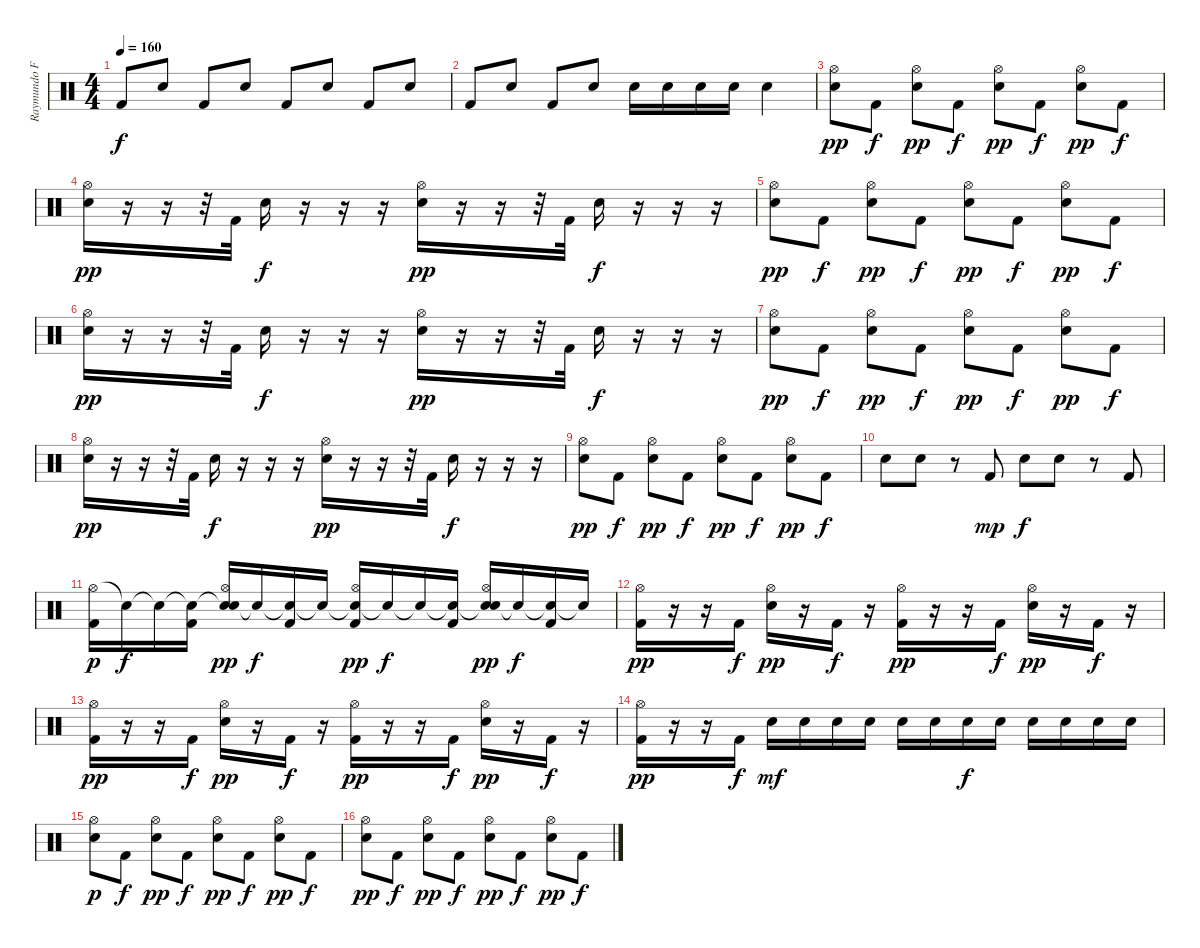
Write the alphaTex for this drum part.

\track ("Raymundo Fajardo (Batería)" "Raymundo F") {instrument percussion}
\staff {score}
\articulation defaults
\ts (4 4)
\tempo 160
\clef neutral
\ks c "Kick (hit) 2".8{dy f} "Electric Snare (hit)".8 "Kick (hit) 2".8 "Electric Snare (hit)".8 "Kick (hit) 2".8 "Electric Snare (hit)".8 "Kick (hit) 2".8 "Electric Snare (hit)".8
|
"Kick (hit) 2".8 "Electric Snare (hit)".8 "Kick (hit) 2".8 "Electric Snare (hit)".8 "Electric Snare (hit)".16 "Electric Snare (hit)".16 "Electric Snare (hit)".16 "Electric Snare (hit)".16 "Electric Snare (hit)".4 |
("Electric Snare (hit)" "Hi-Hat (open)").8{dy pp} "Kick (hit) 2".8{dy f} ("Electric Snare (hit)" "Hi-Hat (open)").8{dy pp} "Kick (hit) 2".8{dy f} ("Electric Snare (hit)" "Hi-Hat (open)").8{dy pp} "Kick (hit) 2".8{dy f} ("Electric Snare (hit)" "Hi-Hat (open)").8{dy pp} "Kick (hit) 2".8{dy f} |
("Electric Snare (hit)" "Hi-Hat (open)").16{dy pp} r.16 r.16 r.32 "Kick (hit) 2".32 "Electric Snare (hit)".16{dy f} r.16 r.16 r.16 ("Electric Snare (hit)" "Hi-Hat (open)").16{dy pp} r.16 r.16 r.32 "Kick (hit) 2".32 "Electric Snare (hit)".16{dy f} r.16 r.16 r.16 |
("Electric Snare (hit)" "Hi-Hat (open)").8{dy pp} "Kick (hit) 2".8{dy f} ("Electric Snare (hit)" "Hi-Hat (open)").8{dy pp} "Kick (hit) 2".8{dy f} ("Electric Snare (hit)" "Hi-Hat (open)").8{dy pp} "Kick (hit) 2".8{dy f} ("Electric Snare (hit)" "Hi-Hat (open)").8{dy pp} "Kick (hit) 2".8{dy f} |
("Electric Snare (hit)" "Hi-Hat (open)").16{dy pp} r.16 r.16 r.32 "Kick (hit) 2".32 "Electric Snare (hit)".16{dy f} r.16 r.16 r.16 ("Electric Snare (hit)" "Hi-Hat (open)").16{dy pp} r.16 r.16 r.32 "Kick (hit) 2".32 "Electric Snare (hit)".16{dy f} r.16 r.16 r.16 |
("Electric Snare (hit)" "Hi-Hat (open)").8{dy pp} "Kick (hit) 2".8{dy f} ("Electric Snare (hit)" "Hi-Hat (open)").8{dy pp} "Kick (hit) 2".8{dy f} ("Electric Snare (hit)" "Hi-Hat (open)").8{dy pp} "Kick (hit) 2".8{dy f} ("Electric Snare (hit)" "Hi-Hat (open)").8{dy pp} "Kick (hit) 2".8{dy f} |
("Electric Snare (hit)" "Hi-Hat (open)").16{dy pp} r.16 r.16 r.32 "Kick (hit) 2".32 "Electric Snare (hit)".16{dy f} r.16 r.16 r.16 ("Electric Snare (hit)" "Hi-Hat (open)").16{dy pp} r.16 r.16 r.32 "Kick (hit) 2".32 "Electric Snare (hit)".16{dy f} r.16 r.16 r.16 |
("Electric Snare (hit)" "Hi-Hat (open)").8{dy pp} "Kick (hit) 2".8{dy f} ("Electric Snare (hit)" "Hi-Hat (open)").8{dy pp} "Kick (hit) 2".8{dy f} ("Electric Snare (hit)" "Hi-Hat (open)").8{dy pp} "Kick (hit) 2".8{dy f} ("Electric Snare (hit)" "Hi-Hat (open)").8{dy pp} "Kick (hit) 2".8{dy f} |
"Electric Snare (hit)".8 "Electric Snare (hit)".8 r.8 "Kick (hit) 2".8{dy mp} "Electric Snare (hit)".8{dy f} "Electric Snare (hit)".8 r.8 "Kick (hit) 2".8 |
("Hi-Hat (open)" "Kick (hit) 2").16{dy p} "Snare (hit)"{t}.16{dy f} "Snare (hit)"{t}.16 ("Snare (hit)"{t} "Kick (hit) 2").16 ("Snare (hit)"{t} "Electric Snare (hit)" "Hi-Hat (open)").16{dy pp} "Snare (hit)"{t}.16{dy f} ("Snare (hit)"{t} "Kick (hit) 2").16 "Snare (hit)"{t}.16 ("Snare (hit)"{t} "Kick (hit) 2" "Hi-Hat (open)").16{dy pp} "Snare (hit)"{t}.16{dy f} "Snare (hit)"{t}.16 ("Snare (hit)"{t} "Kick (hit) 2").16 ("Snare (hit)"{t} "Electric Snare (hit)" "Hi-Hat (open)").16{dy pp} "Snare (hit)"{t}.16{dy f} ("Snare (hit)"{t} "Kick (hit) 2").16 "Snare (hit)"{t}.16 |
("Kick (hit) 2" "Hi-Hat (open)").16{dy pp} r.16 r.16 "Kick (hit) 2".16{dy f} ("Electric Snare (hit)" "Hi-Hat (open)").16{dy pp} r.16 "Kick (hit) 2".16{dy f} r.16 ("Kick (hit) 2" "Hi-Hat (open)").16{dy pp} r.16 r.16 "Kick (hit) 2".16{dy f} ("Electric Snare (hit)" "Hi-Hat (open)").16{dy pp} r.16 "Kick (hit) 2".16{dy f} r.16 |
("Kick (hit) 2" "Hi-Hat (open)").16{dy pp} r.16 r.16 "Kick (hit) 2".16{dy f} ("Electric Snare (hit)" "Hi-Hat (open)").16{dy pp} r.16 "Kick (hit) 2".16{dy f} r.16 ("Kick (hit) 2" "Hi-Hat (open)").16{dy pp} r.16 r.16 "Kick (hit) 2".16{dy f} ("Electric Snare (hit)" "Hi-Hat (open)").16{dy pp} r.16 "Kick (hit) 2".16{dy f} r.16 |
("Kick (hit) 2" "Hi-Hat (open)").16{dy pp} r.16 r.16 "Kick (hit) 2".16{dy f} "Electric Snare (hit)".16{dy mf} "Electric Snare (hit)".16 "Electric Snare (hit)".16 "Electric Snare (hit)".16 "Electric Snare (hit)".16 "Electric Snare (hit)".16 "Electric Snare (hit)".16{dy f} "Electric Snare (hit)".16 "Electric Snare (hit)".16 "Electric Snare (hit)".16 "Electric Snare (hit)".16 "Electric Snare (hit)".16 |
("Electric Snare (hit)" "Hi-Hat (open)").8{dy p} "Kick (hit) 2".8{dy f} ("Electric Snare (hit)" "Hi-Hat (open)").8{dy pp} "Kick (hit) 2".8{dy f} ("Electric Snare (hit)" "Hi-Hat (open)").8{dy pp} "Kick (hit) 2".8{dy f} ("Electric Snare (hit)" "Hi-Hat (open)").8{dy pp} "Kick (hit) 2".8{dy f} |
("Electric Snare (hit)" "Hi-Hat (open)").8{dy pp} "Kick (hit) 2".8{dy f} ("Electric Snare (hit)" "Hi-Hat (open)").8{dy pp} "Kick (hit) 2".8{dy f} ("Electric Snare (hit)" "Hi-Hat (open)").8{dy pp} "Kick (hit) 2".8{dy f} ("Electric Snare (hit)" "Hi-Hat (open)").8{dy pp} "Kick (hit) 2".8{dy f}
